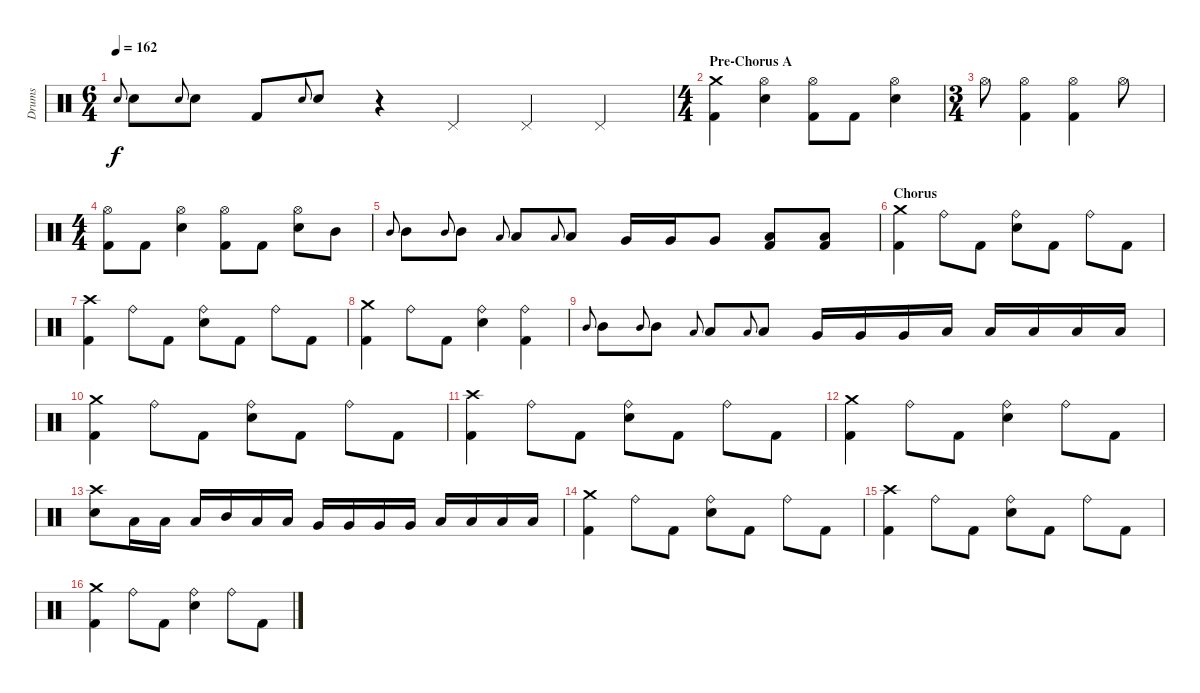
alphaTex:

\track ("Drums" "Drums") {instrument percussion}
\staff {score}
\articulation defaults
\ts (6 4)
\tempo 162
\clef neutral
\ks c "Snare (hit) 2".8{gr onbeat dy f} "Snare (hit) 2".8 "Snare (hit) 2".8{gr onbeat} "Snare (hit) 2".8 "Kick (hit) 2".8 "Snare (hit) 2".8{gr onbeat} "Snare (hit) 2".8
r.4 "Pedal Hi-Hat (hit)".4 "Pedal Hi-Hat (hit)".4 "Pedal Hi-Hat (hit)".4 |
\ts (4 4)
\section ("" "Pre-Chorus A")
("Crash medium (hit)" "Kick (hit) 2").4 ("Hi-Hat (open)" "Snare (hit) 2").4 ("Hi-Hat (open)" "Kick (hit) 2").8 "Kick (hit) 2".8 ("Hi-Hat (open)" "Snare (hit) 2").4 |
\ts (3 4)
"Hi-Hat (open)".8 ("Hi-Hat (open)" "Kick (hit) 2").4 ("Hi-Hat (open)" "Kick (hit) 2").4 "Hi-Hat (open)".8 |
\ts (4 4)
("Hi-Hat (open)" "Kick (hit) 2").8 "Kick (hit) 2".8 ("Hi-Hat (open)" "Snare (hit) 2").4 ("Hi-Hat (open)" "Kick (hit) 2").8 "Kick (hit) 2".8 ("Hi-Hat (open)" "Snare (hit) 2").8 "Mid Tom (hit)".8 |
"Mid Tom (hit)".8{gr onbeat} "Mid Tom (hit)".8 "Mid Tom (hit)".8{gr onbeat} "Mid Tom (hit)".8 "Low Tom (hit)".8{gr onbeat} "Low Tom (hit)".8 "Low Tom (hit)".8{gr onbeat} "Low Tom (hit)".8 "Very Low Tom (hit)".16 "Very Low Tom (hit)".16 "Very Low Tom (hit)".8 ("Low Floor Tom (hit)" "Kick (hit) 2").8 ("Low Floor Tom (hit)" "Kick (hit) 2").8 |
\section ("" "Chorus")
("Crash medium (hit)" "Kick (hit) 2").4 "Ride (bell)".8 "Kick (hit) 2".8 ("Ride (bell)" "Snare (hit) 2").8 "Kick (hit) 2".8 "Ride (bell)".8 "Kick (hit) 2".8 |
("Crash high (hit)" "Kick (hit) 2").4 "Ride (bell)".8 "Kick (hit) 2".8 ("Ride (bell)" "Snare (hit) 2").8 "Kick (hit) 2".8 "Ride (bell)".8 "Kick (hit) 2".8 |
("Crash medium (hit)" "Kick (hit) 2").4 "Ride (bell)".8 "Kick (hit) 2".8 ("Ride (bell)" "Snare (hit) 2").4 ("Ride (bell)" "Kick (hit) 2").4 |
"Mid Tom (hit)".8{gr onbeat} "Mid Tom (hit)".8 "Mid Tom (hit)".8{gr onbeat} "Mid Tom (hit)".8 "Low Tom (hit)".8{gr onbeat} "Low Tom (hit)".8 "Low Tom (hit)".8{gr onbeat} "Low Tom (hit)".8 "Very Low Tom (hit)".16 "Very Low Tom (hit)".16 "Very Low Tom (hit)".16 "Low Floor Tom (hit)".16 "Low Floor Tom (hit)".16 "Low Floor Tom (hit)".16 "Low Floor Tom (hit)".16 "Low Floor Tom (hit)".16 |
("Crash medium (hit)" "Kick (hit) 2").4 "Ride (bell)".8 "Kick (hit) 2".8 ("Ride (bell)" "Snare (hit) 2").8 "Kick (hit) 2".8 "Ride (bell)".8 "Kick (hit) 2".8 |
("Crash high (hit)" "Kick (hit) 2").4 "Ride (bell)".8 "Kick (hit) 2".8 ("Ride (bell)" "Snare (hit) 2").8 "Kick (hit) 2".8 "Ride (bell)".8 "Kick (hit) 2".8 |
("Crash medium (hit)" "Kick (hit) 2").4 "Ride (bell)".8 "Kick (hit) 2".8 ("Ride (bell)" "Snare (hit) 2").4 "Ride (bell)".8 "Kick (hit) 2".8 |
("Crash high (hit)" "Snare (hit) 2").8 "Low Tom (hit)".16 "Low Tom (hit)".16 "Low Tom (hit)".16 "Mid Tom (hit)".16 "Low Tom (hit)".16 "Low Tom (hit)".16 "Very Low Tom (hit)".16 "Very Low Tom (hit)".16 "Very Low Tom (hit)".16 "Very Low Tom (hit)".16 "Low Floor Tom (hit)".16 "Low Floor Tom (hit)".16 "Low Floor Tom (hit)".16 "Low Floor Tom (hit)".16 |
("Crash medium (hit)" "Kick (hit) 2").4 "Ride (bell)".8 "Kick (hit) 2".8 ("Ride (bell)" "Snare (hit) 2").8 "Kick (hit) 2".8 "Ride (bell)".8 "Kick (hit) 2".8 |
("Crash high (hit)" "Kick (hit) 2").4 "Ride (bell)".8 "Kick (hit) 2".8 ("Ride (bell)" "Snare (hit) 2").8 "Kick (hit) 2".8 "Ride (bell)".8 "Kick (hit) 2".8 |
("Crash medium (hit)" "Kick (hit) 2").4 "Ride (bell)".8 "Kick (hit) 2".8 ("Ride (bell)" "Snare (hit) 2").4 "Ride (bell)".8 "Kick (hit) 2".8
